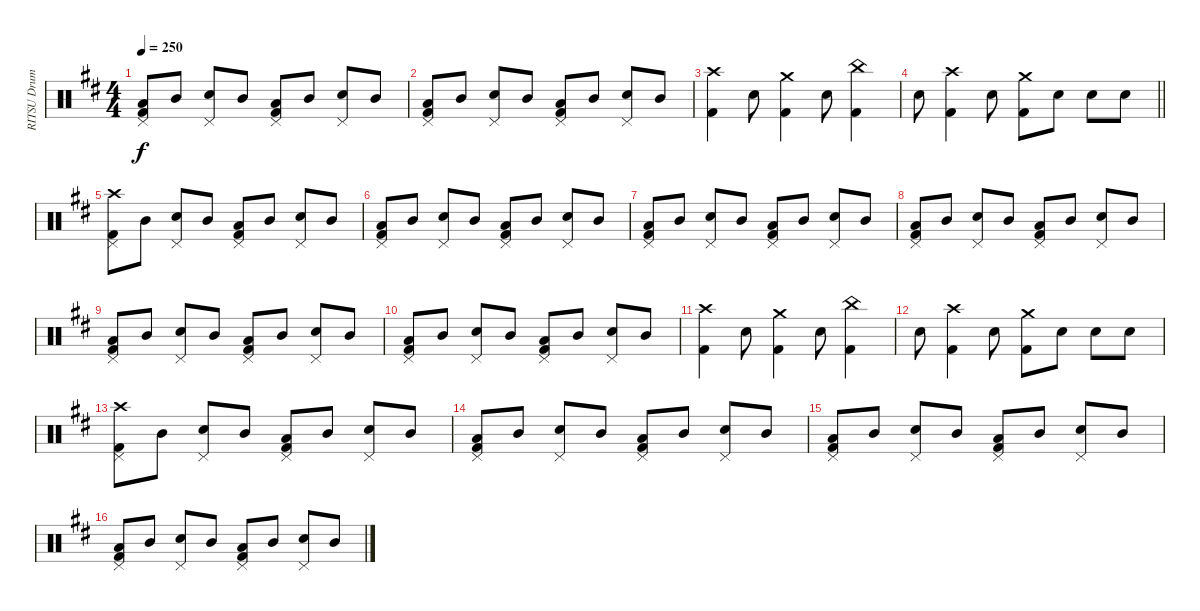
\track ("RITSU Drums" "RITSU Drum") {instrument percussion}
\staff {score}
\articulation defaults
\ts (4 4)
\tempo 250
\clef neutral
\ks d
("Pedal Hi-Hat (hit)" "Low Floor Tom (hit)" "Kick (hit) 2").8{dy f} "Mid Tom (hit)".8 ("Pedal Hi-Hat (hit)" "Electric Snare (hit)").8 "Mid Tom (hit)".8 ("Pedal Hi-Hat (hit)" "Low Floor Tom (hit)" "Kick (hit) 2").8 "Mid Tom (hit)".8 ("Pedal Hi-Hat (hit)" "Electric Snare (hit)").8 "Mid Tom (hit)".8 |
("Pedal Hi-Hat (hit)" "Low Floor Tom (hit)" "Kick (hit) 2").8 "Mid Tom (hit)".8 ("Pedal Hi-Hat (hit)" "Electric Snare (hit)").8 "Mid Tom (hit)".8 ("Pedal Hi-Hat (hit)" "Low Floor Tom (hit)" "Kick (hit) 2").8 "Mid Tom (hit)".8 ("Pedal Hi-Hat (hit)" "Electric Snare (hit)").8 "Mid Tom (hit)".8 |
("Crash high (hit)" "Kick (hit) 2").4 "Electric Snare (hit)".8 ("Crash medium (hit)" "Kick (hit) 2").4 "Electric Snare (hit)".8 ("China (hit)" "Kick (hit) 2").4 |
\barLineRight lightlight "Electric Snare (hit)".8
("Crash high (hit)" "Kick (hit) 2").4 "Electric Snare (hit)".8 ("Crash medium (hit)" "Kick (hit) 2").8 "Electric Snare (hit)".8 "Electric Snare (hit)".8 "Electric Snare (hit)".8 |
("Crash high (hit)" "Pedal Hi-Hat (hit)" "Kick (hit) 2").8 "Mid Tom (hit)".8 ("Pedal Hi-Hat (hit)" "Electric Snare (hit)").8 "Mid Tom (hit)".8 ("Pedal Hi-Hat (hit)" "Low Floor Tom (hit)" "Kick (hit) 2").8 "Mid Tom (hit)".8 ("Pedal Hi-Hat (hit)" "Electric Snare (hit)").8 "Mid Tom (hit)".8 |
("Pedal Hi-Hat (hit)" "Low Floor Tom (hit)" "Kick (hit) 2").8 "Mid Tom (hit)".8 ("Pedal Hi-Hat (hit)" "Electric Snare (hit)").8 "Mid Tom (hit)".8 ("Pedal Hi-Hat (hit)" "Low Floor Tom (hit)" "Kick (hit) 2").8 "Mid Tom (hit)".8 ("Pedal Hi-Hat (hit)" "Electric Snare (hit)").8 "Mid Tom (hit)".8 |
("Pedal Hi-Hat (hit)" "Low Floor Tom (hit)" "Kick (hit) 2").8 "Mid Tom (hit)".8 ("Pedal Hi-Hat (hit)" "Electric Snare (hit)").8 "Mid Tom (hit)".8 ("Pedal Hi-Hat (hit)" "Low Floor Tom (hit)" "Kick (hit) 2").8 "Mid Tom (hit)".8 ("Pedal Hi-Hat (hit)" "Electric Snare (hit)").8 "Mid Tom (hit)".8 |
("Pedal Hi-Hat (hit)" "Low Floor Tom (hit)" "Kick (hit) 2").8 "Mid Tom (hit)".8 ("Pedal Hi-Hat (hit)" "Electric Snare (hit)").8 "Mid Tom (hit)".8 ("Pedal Hi-Hat (hit)" "Low Floor Tom (hit)" "Kick (hit) 2").8 "Mid Tom (hit)".8 ("Pedal Hi-Hat (hit)" "Electric Snare (hit)").8 "Mid Tom (hit)".8 |
("Pedal Hi-Hat (hit)" "Low Floor Tom (hit)" "Kick (hit) 2").8 "Mid Tom (hit)".8 ("Pedal Hi-Hat (hit)" "Electric Snare (hit)").8 "Mid Tom (hit)".8 ("Pedal Hi-Hat (hit)" "Low Floor Tom (hit)" "Kick (hit) 2").8 "Mid Tom (hit)".8 ("Pedal Hi-Hat (hit)" "Electric Snare (hit)").8 "Mid Tom (hit)".8 |
("Pedal Hi-Hat (hit)" "Low Floor Tom (hit)" "Kick (hit) 2").8 "Mid Tom (hit)".8 ("Pedal Hi-Hat (hit)" "Electric Snare (hit)").8 "Mid Tom (hit)".8 ("Pedal Hi-Hat (hit)" "Low Floor Tom (hit)" "Kick (hit) 2").8 "Mid Tom (hit)".8 ("Pedal Hi-Hat (hit)" "Electric Snare (hit)").8 "Mid Tom (hit)".8 |
("Crash high (hit)" "Kick (hit) 2").4 "Electric Snare (hit)".8 ("Crash medium (hit)" "Kick (hit) 2").4 "Electric Snare (hit)".8 ("China (hit)" "Kick (hit) 2").4 |
"Electric Snare (hit)".8 ("Crash high (hit)" "Kick (hit) 2").4 "Electric Snare (hit)".8 ("Crash medium (hit)" "Kick (hit) 2").8 "Electric Snare (hit)".8 "Electric Snare (hit)".8 "Electric Snare (hit)".8 |
("Crash high (hit)" "Pedal Hi-Hat (hit)" "Kick (hit) 2").8 "Mid Tom (hit)".8 ("Pedal Hi-Hat (hit)" "Electric Snare (hit)").8 "Mid Tom (hit)".8 ("Pedal Hi-Hat (hit)" "Low Floor Tom (hit)" "Kick (hit) 2").8 "Mid Tom (hit)".8 ("Pedal Hi-Hat (hit)" "Electric Snare (hit)").8 "Mid Tom (hit)".8 |
("Pedal Hi-Hat (hit)" "Low Floor Tom (hit)" "Kick (hit) 2").8 "Mid Tom (hit)".8 ("Pedal Hi-Hat (hit)" "Electric Snare (hit)").8 "Mid Tom (hit)".8 ("Pedal Hi-Hat (hit)" "Low Floor Tom (hit)" "Kick (hit) 2").8 "Mid Tom (hit)".8 ("Pedal Hi-Hat (hit)" "Electric Snare (hit)").8 "Mid Tom (hit)".8 |
("Pedal Hi-Hat (hit)" "Low Floor Tom (hit)" "Kick (hit) 2").8 "Mid Tom (hit)".8 ("Pedal Hi-Hat (hit)" "Electric Snare (hit)").8 "Mid Tom (hit)".8 ("Pedal Hi-Hat (hit)" "Low Floor Tom (hit)" "Kick (hit) 2").8 "Mid Tom (hit)".8 ("Pedal Hi-Hat (hit)" "Electric Snare (hit)").8 "Mid Tom (hit)".8 |
("Pedal Hi-Hat (hit)" "Low Floor Tom (hit)" "Kick (hit) 2").8 "Mid Tom (hit)".8 ("Pedal Hi-Hat (hit)" "Electric Snare (hit)").8 "Mid Tom (hit)".8 ("Pedal Hi-Hat (hit)" "Low Floor Tom (hit)" "Kick (hit) 2").8 "Mid Tom (hit)".8 ("Pedal Hi-Hat (hit)" "Electric Snare (hit)").8 "Mid Tom (hit)".8
